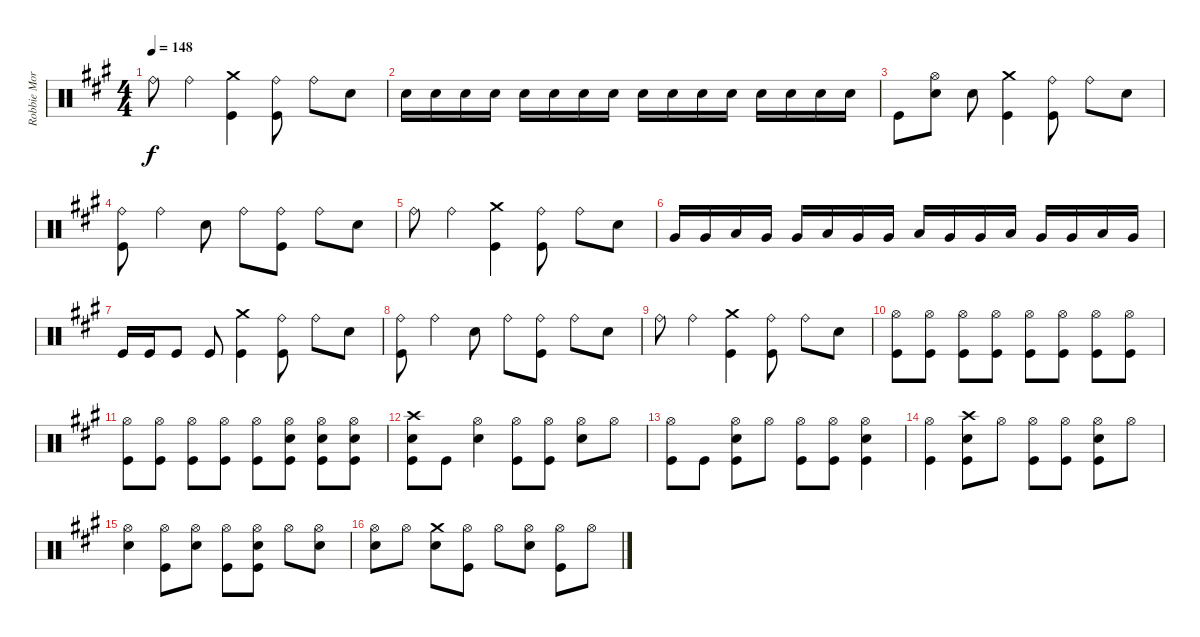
\track ("Robbie Morris Drums" "Robbie Mor") {instrument percussion}
\staff {score}
\articulation defaults
\ts (4 4)
\tempo 148
\clef neutral
\ks a "Ride (bell)".8{dy f} "Ride (bell)".4
("Crash medium (hit)" "Kick (hit)").4 ("Ride (bell)" "Kick (hit)").8 "Ride (bell)".8 "Snare (hit) 2".8 |
"Snare (hit) 2".16 "Snare (hit) 2".16 "Snare (hit) 2".16 "Snare (hit) 2".16 "Snare (hit) 2".16 "Snare (hit) 2".16 "Snare (hit) 2".16 "Snare (hit) 2".16 "Snare (hit) 2".16 "Snare (hit) 2".16 "Snare (hit) 2".16 "Snare (hit) 2".16 "Snare (hit) 2".16 "Snare (hit) 2".16 "Snare (hit) 2".16 "Snare (hit) 2".16 |
"Kick (hit)".8 ("Hi-Hat (open)" "Snare (hit) 2").8 "Snare (hit) 2".8 ("Crash medium (hit)" "Kick (hit)").4 ("Ride (bell)" "Kick (hit)").8 "Ride (bell)".8 "Snare (hit) 2".8 |
("Ride (bell)" "Kick (hit)").8 "Ride (bell)".4 "Snare (hit) 2".8 "Ride (bell)".8 ("Ride (bell)" "Kick (hit)").8 "Ride (bell)".8 "Snare (hit) 2".8 |
"Ride (bell)".8 "Ride (bell)".4 ("Crash medium (hit)" "Kick (hit)").4 ("Ride (bell)" "Kick (hit)").8 "Ride (bell)".8 "Snare (hit) 2".8 |
"Very Low Tom (hit)".16 "Very Low Tom (hit)".16 "Low Floor Tom (hit)".16 "Very Low Tom (hit)".16 "Very Low Tom (hit)".16 "Low Floor Tom (hit)".16 "Very Low Tom (hit)".16 "Very Low Tom (hit)".16 "Low Floor Tom (hit)".16 "Very Low Tom (hit)".16 "Very Low Tom (hit)".16 "Low Floor Tom (hit)".16 "Very Low Tom (hit)".16 "Very Low Tom (hit)".16 "Low Floor Tom (hit)".16 "Very Low Tom (hit)".16 |
"Kick (hit)".16 "Kick (hit)".16 "Kick (hit)".8 "Kick (hit)".8 ("Crash medium (hit)" "Kick (hit)").4 ("Ride (bell)" "Kick (hit)").8 "Ride (bell)".8 "Snare (hit) 2".8 |
("Ride (bell)" "Kick (hit)").8 "Ride (bell)".4 "Snare (hit) 2".8 "Ride (bell)".8 ("Ride (bell)" "Kick (hit)").8 "Ride (bell)".8 "Snare (hit) 2".8 |
"Ride (bell)".8 "Ride (bell)".4 ("Crash medium (hit)" "Kick (hit)").4 ("Ride (bell)" "Kick (hit)").8 "Ride (bell)".8 "Snare (hit) 2".8 |
("Hi-Hat (open)" "Kick (hit)").8 ("Hi-Hat (open)" "Kick (hit)").8 ("Hi-Hat (open)" "Kick (hit)").8 ("Hi-Hat (open)" "Kick (hit)").8 ("Hi-Hat (open)" "Kick (hit)").8 ("Hi-Hat (open)" "Kick (hit)").8 ("Hi-Hat (open)" "Kick (hit)").8 ("Hi-Hat (open)" "Kick (hit)").8 |
("Hi-Hat (open)" "Kick (hit)").8 ("Hi-Hat (open)" "Kick (hit)").8 ("Hi-Hat (open)" "Kick (hit)").8 ("Hi-Hat (open)" "Kick (hit)").8 ("Hi-Hat (open)" "Kick (hit)").8 ("Hi-Hat (open)" "Snare (hit) 2" "Kick (hit)").8 ("Hi-Hat (open)" "Snare (hit) 2" "Kick (hit)").8 ("Hi-Hat (open)" "Snare (hit) 2" "Kick (hit)").8 |
("Crash high (hit)" "Snare (hit) 2" "Kick (hit)").8 "Kick (hit)".8 ("Hi-Hat (open)" "Snare (hit) 2").4 ("Hi-Hat (open)" "Kick (hit)").8 ("Hi-Hat (open)" "Kick (hit)").8 ("Hi-Hat (open)" "Snare (hit) 2").8 "Hi-Hat (open)".8 |
("Hi-Hat (open)" "Kick (hit)").8 "Kick (hit)".8 ("Hi-Hat (open)" "Snare (hit) 2" "Kick (hit)").8 "Hi-Hat (open)".8 ("Hi-Hat (open)" "Kick (hit)").8 ("Hi-Hat (open)" "Kick (hit)").8 ("Hi-Hat (open)" "Snare (hit) 2" "Kick (hit)").4 |
("Hi-Hat (open)" "Kick (hit)").4 ("Crash high (hit)" "Snare (hit) 2" "Kick (hit)").8 "Hi-Hat (open)".8 ("Hi-Hat (open)" "Kick (hit)").8 ("Hi-Hat (open)" "Kick (hit)").8 ("Hi-Hat (open)" "Snare (hit) 2" "Kick (hit)").8 "Hi-Hat (open)".8 |
("Hi-Hat (open)" "Snare (hit) 2").4 ("Hi-Hat (open)" "Kick (hit)").8 ("Hi-Hat (open)" "Snare (hit) 2").8 ("Hi-Hat (open)" "Kick (hit)").8 ("Hi-Hat (open)" "Snare (hit) 2" "Kick (hit)").8 "Hi-Hat (open)".8 ("Hi-Hat (open)" "Snare (hit) 2").8 |
("Hi-Hat (open)" "Snare (hit) 2").8 "Hi-Hat (open)".8 ("Crash medium (hit)" "Snare (hit) 2").8 ("Hi-Hat (open)" "Kick (hit)").8 "Hi-Hat (open)".8 ("Hi-Hat (open)" "Snare (hit) 2").8 ("Hi-Hat (open)" "Kick (hit)").8 "Hi-Hat (open)".8
